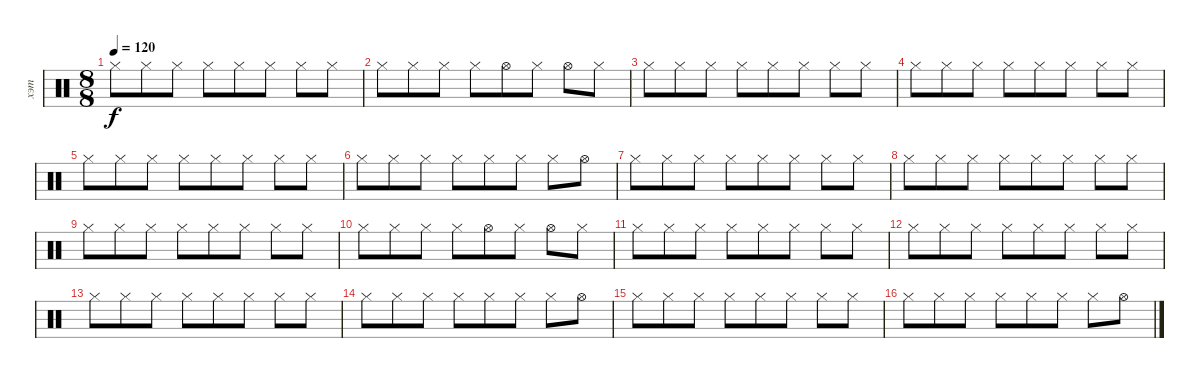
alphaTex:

\track ("хэт" "хэт") {instrument percussion}
\staff {score}
\articulation defaults
\ts (8 8)
\tempo 120
\clef neutral
\ks c "Hi-Hat (closed)".8{dy f} "Hi-Hat (closed)".8 "Hi-Hat (closed)".8 "Hi-Hat (closed)".8 "Hi-Hat (closed)".8 "Hi-Hat (closed)".8 "Hi-Hat (closed)".8 "Hi-Hat (closed)".8
|
"Hi-Hat (closed)".8 "Hi-Hat (closed)".8 "Hi-Hat (closed)".8 "Hi-Hat (closed)".8 "Hi-Hat (open)".8 "Hi-Hat (closed)".8 "Hi-Hat (open)".8 "Hi-Hat (closed)".8 |
"Hi-Hat (closed)".8 "Hi-Hat (closed)".8 "Hi-Hat (closed)".8 "Hi-Hat (closed)".8 "Hi-Hat (closed)".8 "Hi-Hat (closed)".8 "Hi-Hat (closed)".8 "Hi-Hat (closed)".8 |
"Hi-Hat (closed)".8 "Hi-Hat (closed)".8 "Hi-Hat (closed)".8 "Hi-Hat (closed)".8 "Hi-Hat (closed)".8 "Hi-Hat (closed)".8 "Hi-Hat (closed)".8 "Hi-Hat (closed)".8 |
"Hi-Hat (closed)".8 "Hi-Hat (closed)".8 "Hi-Hat (closed)".8 "Hi-Hat (closed)".8 "Hi-Hat (closed)".8 "Hi-Hat (closed)".8 "Hi-Hat (closed)".8 "Hi-Hat (closed)".8 |
"Hi-Hat (closed)".8 "Hi-Hat (closed)".8 "Hi-Hat (closed)".8 "Hi-Hat (closed)".8 "Hi-Hat (closed)".8 "Hi-Hat (closed)".8 "Hi-Hat (closed)".8 "Hi-Hat (open)".8 |
"Hi-Hat (closed)".8 "Hi-Hat (closed)".8 "Hi-Hat (closed)".8 "Hi-Hat (closed)".8 "Hi-Hat (closed)".8 "Hi-Hat (closed)".8 "Hi-Hat (closed)".8 "Hi-Hat (closed)".8 |
"Hi-Hat (closed)".8 "Hi-Hat (closed)".8 "Hi-Hat (closed)".8 "Hi-Hat (closed)".8 "Hi-Hat (closed)".8 "Hi-Hat (closed)".8 "Hi-Hat (closed)".8 "Hi-Hat (closed)".8 |
"Hi-Hat (closed)".8 "Hi-Hat (closed)".8 "Hi-Hat (closed)".8 "Hi-Hat (closed)".8 "Hi-Hat (closed)".8 "Hi-Hat (closed)".8 "Hi-Hat (closed)".8 "Hi-Hat (closed)".8 |
"Hi-Hat (closed)".8 "Hi-Hat (closed)".8 "Hi-Hat (closed)".8 "Hi-Hat (closed)".8 "Hi-Hat (open)".8 "Hi-Hat (closed)".8 "Hi-Hat (open)".8 "Hi-Hat (closed)".8 |
"Hi-Hat (closed)".8 "Hi-Hat (closed)".8 "Hi-Hat (closed)".8 "Hi-Hat (closed)".8 "Hi-Hat (closed)".8 "Hi-Hat (closed)".8 "Hi-Hat (closed)".8 "Hi-Hat (closed)".8 |
"Hi-Hat (closed)".8 "Hi-Hat (closed)".8 "Hi-Hat (closed)".8 "Hi-Hat (closed)".8 "Hi-Hat (closed)".8 "Hi-Hat (closed)".8 "Hi-Hat (closed)".8 "Hi-Hat (closed)".8 |
"Hi-Hat (closed)".8 "Hi-Hat (closed)".8 "Hi-Hat (closed)".8 "Hi-Hat (closed)".8 "Hi-Hat (closed)".8 "Hi-Hat (closed)".8 "Hi-Hat (closed)".8 "Hi-Hat (closed)".8 |
"Hi-Hat (closed)".8 "Hi-Hat (closed)".8 "Hi-Hat (closed)".8 "Hi-Hat (closed)".8 "Hi-Hat (closed)".8 "Hi-Hat (closed)".8 "Hi-Hat (closed)".8 "Hi-Hat (open)".8 |
"Hi-Hat (closed)".8 "Hi-Hat (closed)".8 "Hi-Hat (closed)".8 "Hi-Hat (closed)".8 "Hi-Hat (closed)".8 "Hi-Hat (closed)".8 "Hi-Hat (closed)".8 "Hi-Hat (closed)".8 |
"Hi-Hat (closed)".8 "Hi-Hat (closed)".8 "Hi-Hat (closed)".8 "Hi-Hat (closed)".8 "Hi-Hat (closed)".8 "Hi-Hat (closed)".8 "Hi-Hat (closed)".8 "Hi-Hat (open)".8
